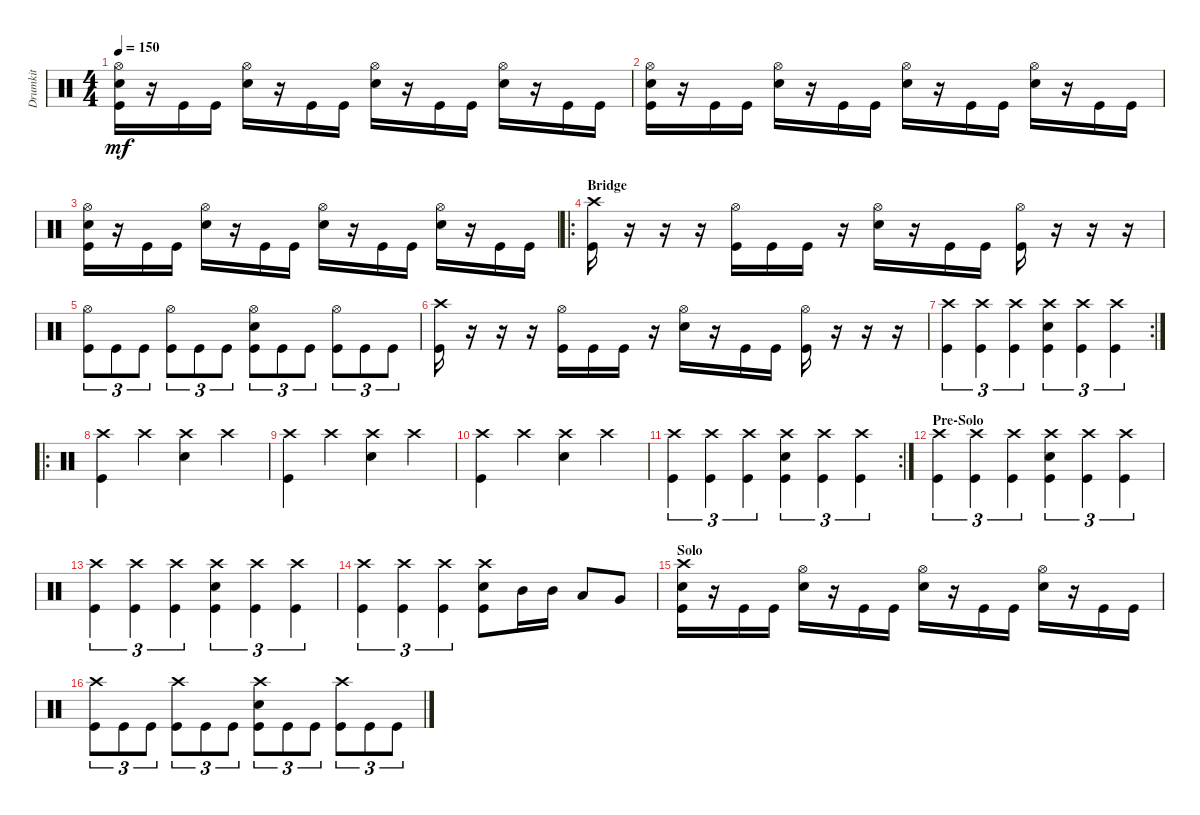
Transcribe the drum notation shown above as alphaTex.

\track ("Drumkit" "Drumkit") {instrument percussion}
\staff {score}
\articulation defaults
\ts (4 4)
\tempo 150
\clef neutral
\ks c
("Snare (hit) 2" "Kick (hit)" "Hi-Hat (open)").16{dy mf} r.16 "Kick (hit)".16 "Kick (hit)".16 ("Snare (hit) 2" "Hi-Hat (open)").16 r.16 "Kick (hit)".16 "Kick (hit)".16 ("Snare (hit) 2" "Hi-Hat (open)").16 r.16 "Kick (hit)".16 "Kick (hit)".16 ("Snare (hit) 2" "Hi-Hat (open)").16 r.16 "Kick (hit)".16 "Kick (hit)".16 |
("Snare (hit) 2" "Kick (hit)" "Hi-Hat (open)").16 r.16 "Kick (hit)".16 "Kick (hit)".16 ("Snare (hit) 2" "Hi-Hat (open)").16 r.16 "Kick (hit)".16 "Kick (hit)".16 ("Snare (hit) 2" "Hi-Hat (open)").16 r.16 "Kick (hit)".16 "Kick (hit)".16 ("Snare (hit) 2" "Hi-Hat (open)").16 r.16 "Kick (hit)".16 "Kick (hit)".16 |
("Snare (hit) 2" "Kick (hit)" "Hi-Hat (open)").16 r.16 "Kick (hit)".16 "Kick (hit)".16 ("Snare (hit) 2" "Hi-Hat (open)").16 r.16 "Kick (hit)".16 "Kick (hit)".16 ("Snare (hit) 2" "Hi-Hat (open)").16 r.16 "Kick (hit)".16 "Kick (hit)".16 ("Snare (hit) 2" "Hi-Hat (open)").16 r.16 "Kick (hit)".16 "Kick (hit)".16 |
\ro
\section ("" "Bridge")
("Kick (hit)" "Crash high (hit)").16 r.16 r.16 r.16 ("Hi-Hat (open)" "Kick (hit)").16 "Kick (hit)".16 "Kick (hit)".16 r.16 ("Snare (hit) 2" "Hi-Hat (open)").16 r.16 "Kick (hit)".16 "Kick (hit)".16 ("Hi-Hat (open)" "Kick (hit)").16 r.16 r.16 r.16 |
("Kick (hit)" "Hi-Hat (open)").8{tu (3 2)} "Kick (hit)".8{tu (3 2)} "Kick (hit)".8{tu (3 2)} ("Kick (hit)" "Hi-Hat (open)").8{tu (3 2)} "Kick (hit)".8{tu (3 2)} "Kick (hit)".8{tu (3 2)} ("Kick (hit)" "Snare (hit) 2" "Hi-Hat (open)").8{tu (3 2)} "Kick (hit)".8{tu (3 2)} "Kick (hit)".8{tu (3 2)} ("Kick (hit)" "Hi-Hat (open)").8{tu (3 2)} "Kick (hit)".8{tu (3 2)} "Kick (hit)".8{tu (3 2)} |
("Kick (hit)" "Crash high (hit)").16 r.16 r.16 r.16 ("Hi-Hat (open)" "Kick (hit)").16 "Kick (hit)".16 "Kick (hit)".16 r.16 ("Snare (hit) 2" "Hi-Hat (open)").16 r.16 "Kick (hit)".16 "Kick (hit)".16 ("Hi-Hat (open)" "Kick (hit)").16 r.16 r.16 r.16 |
\rc 2
("Kick (hit)" "Crash high (hit)").4{tu (3 2)} ("Kick (hit)" "Crash high (hit)").4{tu (3 2)} ("Kick (hit)" "Crash high (hit)").4{tu (3 2)} ("Kick (hit)" "Crash high (hit)" "Snare (hit) 2").4{tu (3 2)} ("Kick (hit)" "Crash high (hit)").4{tu (3 2)} ("Kick (hit)" "Crash high (hit)").4{tu (3 2)} |
\ro
("Kick (hit)" "Crash high (hit)").4 "Crash high (hit)".4 ("Crash high (hit)" "Snare (hit) 2").4 "Crash high (hit)".4 |
("Kick (hit)" "Crash high (hit)").4 "Crash high (hit)".4 ("Crash high (hit)" "Snare (hit) 2").4 "Crash high (hit)".4 |
("Kick (hit)" "Crash high (hit)").4 "Crash high (hit)".4 ("Crash high (hit)" "Snare (hit) 2").4 "Crash high (hit)".4 |
\rc 2
("Kick (hit)" "Crash high (hit)").4{tu (3 2)} ("Kick (hit)" "Crash high (hit)").4{tu (3 2)} ("Kick (hit)" "Crash high (hit)").4{tu (3 2)} ("Kick (hit)" "Crash high (hit)" "Snare (hit) 2").4{tu (3 2)} ("Kick (hit)" "Crash high (hit)").4{tu (3 2)} ("Kick (hit)" "Crash high (hit)").4{tu (3 2)} |
\section ("" "Pre-Solo")
("Kick (hit)" "Crash high (hit)").4{tu (3 2)} ("Kick (hit)" "Crash high (hit)").4{tu (3 2)} ("Kick (hit)" "Crash high (hit)").4{tu (3 2)} ("Kick (hit)" "Crash high (hit)" "Snare (hit) 2").4{tu (3 2)} ("Kick (hit)" "Crash high (hit)").4{tu (3 2)} ("Kick (hit)" "Crash high (hit)").4{tu (3 2)} |
("Kick (hit)" "Crash high (hit)").4{tu (3 2)} ("Kick (hit)" "Crash high (hit)").4{tu (3 2)} ("Kick (hit)" "Crash high (hit)").4{tu (3 2)} ("Kick (hit)" "Crash high (hit)" "Snare (hit) 2").4{tu (3 2)} ("Kick (hit)" "Crash high (hit)").4{tu (3 2)} ("Kick (hit)" "Crash high (hit)").4{tu (3 2)} |
("Kick (hit)" "Crash high (hit)").4{tu (3 2)} ("Kick (hit)" "Crash high (hit)").4{tu (3 2)} ("Kick (hit)" "Crash high (hit)").4{tu (3 2)} ("Kick (hit)" "Crash high (hit)" "Snare (hit) 2").8 "Mid Tom (hit)".16 "Mid Tom (hit)".16 "Low Tom (hit)".8 "Very Low Tom (hit)".8 |
\section ("" "Solo")
("Snare (hit) 2" "Kick (hit)" "Crash high (hit)").16 r.16 "Kick (hit)".16 "Kick (hit)".16 ("Snare (hit) 2" "Hi-Hat (open)").16 r.16 "Kick (hit)".16 "Kick (hit)".16 ("Snare (hit) 2" "Hi-Hat (open)").16 r.16 "Kick (hit)".16 "Kick (hit)".16 ("Snare (hit) 2" "Hi-Hat (open)").16 r.16 "Kick (hit)".16 "Kick (hit)".16 |
("Kick (hit)" "Crash high (hit)").8{tu (3 2)} "Kick (hit)".8{tu (3 2)} "Kick (hit)".8{tu (3 2)} ("Kick (hit)" "Crash high (hit)").8{tu (3 2)} "Kick (hit)".8{tu (3 2)} "Kick (hit)".8{tu (3 2)} ("Kick (hit)" "Crash high (hit)" "Snare (hit) 2").8{tu (3 2)} "Kick (hit)".8{tu (3 2)} "Kick (hit)".8{tu (3 2)} ("Kick (hit)" "Crash high (hit)").8{tu (3 2)} "Kick (hit)".8{tu (3 2)} "Kick (hit)".8{tu (3 2)}
